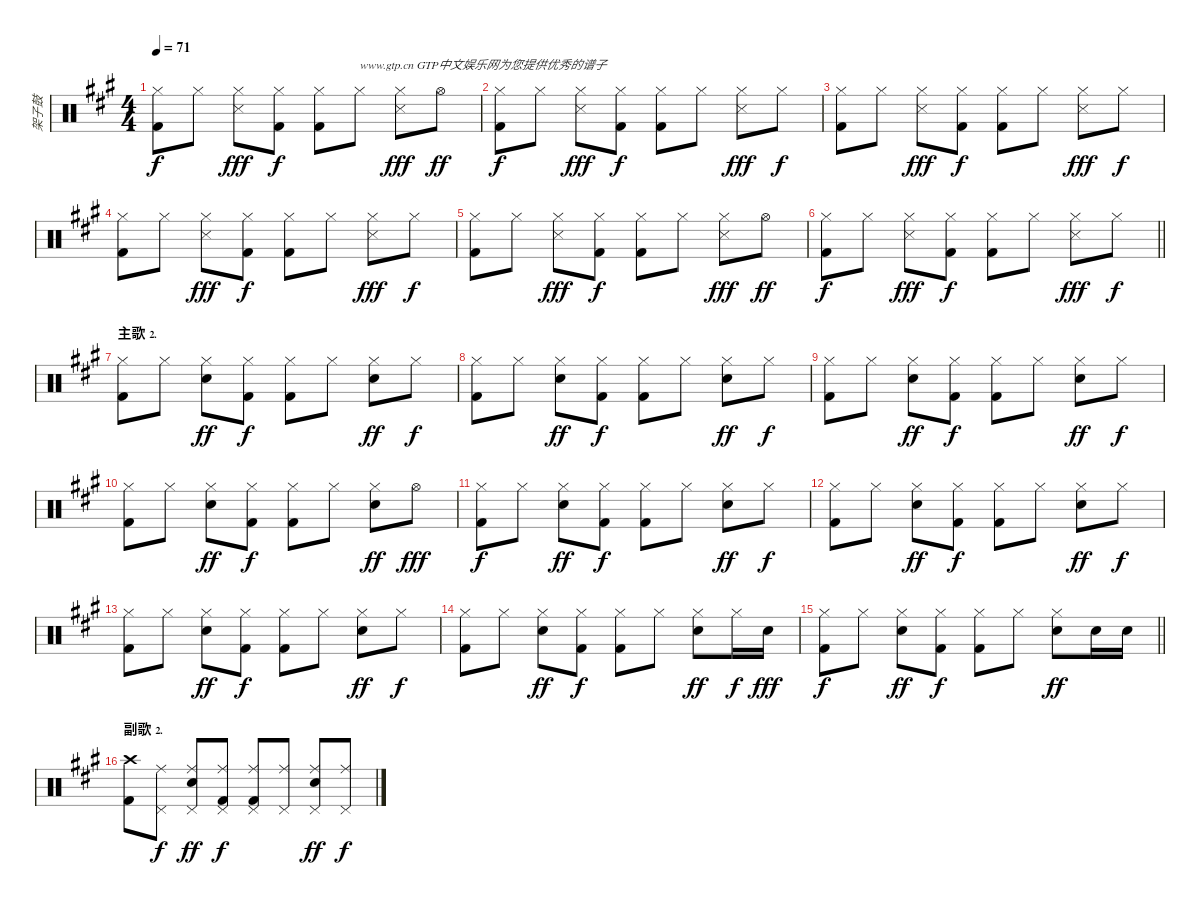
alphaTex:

\track ("架子鼓" "架子鼓") {instrument percussion}
\staff {score}
\articulation defaults
\ts (4 4)
\tempo 71
\clef neutral
\ks a
("Hi-Hat (closed)" "Kick (hit) 2").8{dy f} "Hi-Hat (closed)".8 ("Hi-Hat (closed)" "Snare (side stick) 3").8{dy fff} ("Hi-Hat (closed)" "Kick (hit) 2").8{dy f} ("Hi-Hat (closed)" "Kick (hit) 2").8 "Hi-Hat (closed)".8{txt "www.gtp.cn GTP中文娱乐网为您提供优秀的谱子"} ("Hi-Hat (closed)" "Snare (side stick) 3").8{dy fff} "Hi-Hat (open)".8{dy ff} |
("Hi-Hat (closed)" "Kick (hit) 2").8{dy f} "Hi-Hat (closed)".8 ("Hi-Hat (closed)" "Snare (side stick) 3").8{dy fff} ("Hi-Hat (closed)" "Kick (hit) 2").8{dy f} ("Hi-Hat (closed)" "Kick (hit) 2").8 "Hi-Hat (closed)".8 ("Hi-Hat (closed)" "Snare (side stick) 3").8{dy fff} "Hi-Hat (closed)".8{dy f} |
("Hi-Hat (closed)" "Kick (hit) 2").8 "Hi-Hat (closed)".8 ("Hi-Hat (closed)" "Snare (side stick) 3").8{dy fff} ("Hi-Hat (closed)" "Kick (hit) 2").8{dy f} ("Hi-Hat (closed)" "Kick (hit) 2").8 "Hi-Hat (closed)".8 ("Hi-Hat (closed)" "Snare (side stick) 3").8{dy fff} "Hi-Hat (closed)".8{dy f} |
("Hi-Hat (closed)" "Kick (hit) 2").8 "Hi-Hat (closed)".8 ("Hi-Hat (closed)" "Snare (side stick) 3").8{dy fff} ("Hi-Hat (closed)" "Kick (hit) 2").8{dy f} ("Hi-Hat (closed)" "Kick (hit) 2").8 "Hi-Hat (closed)".8 ("Hi-Hat (closed)" "Snare (side stick) 3").8{dy fff} "Hi-Hat (closed)".8{dy f} |
("Hi-Hat (closed)" "Kick (hit) 2").8 "Hi-Hat (closed)".8 ("Hi-Hat (closed)" "Snare (side stick) 3").8{dy fff} ("Hi-Hat (closed)" "Kick (hit) 2").8{dy f} ("Hi-Hat (closed)" "Kick (hit) 2").8 "Hi-Hat (closed)".8 ("Hi-Hat (closed)" "Snare (side stick) 3").8{dy fff} "Hi-Hat (open)".8{dy ff} |
\barLineRight lightlight
("Hi-Hat (closed)" "Kick (hit) 2").8{dy f} "Hi-Hat (closed)".8 ("Hi-Hat (closed)" "Snare (side stick) 3").8{dy fff} ("Hi-Hat (closed)" "Kick (hit) 2").8{dy f} ("Hi-Hat (closed)" "Kick (hit) 2").8 "Hi-Hat (closed)".8 ("Hi-Hat (closed)" "Snare (side stick) 3").8{dy fff} "Hi-Hat (closed)".8{dy f} |
\section ("" "主歌⒉")
("Hi-Hat (closed)" "Kick (hit) 2").8 "Hi-Hat (closed)".8 ("Hi-Hat (closed)" "Electric Snare (hit)").8{dy ff} ("Hi-Hat (closed)" "Kick (hit) 2").8{dy f} ("Hi-Hat (closed)" "Kick (hit) 2").8 "Hi-Hat (closed)".8 ("Hi-Hat (closed)" "Electric Snare (hit)").8{dy ff} "Hi-Hat (closed)".8{dy f} |
("Hi-Hat (closed)" "Kick (hit) 2").8 "Hi-Hat (closed)".8 ("Hi-Hat (closed)" "Electric Snare (hit)").8{dy ff} ("Hi-Hat (closed)" "Kick (hit) 2").8{dy f} ("Hi-Hat (closed)" "Kick (hit) 2").8 "Hi-Hat (closed)".8 ("Hi-Hat (closed)" "Electric Snare (hit)").8{dy ff} "Hi-Hat (closed)".8{dy f} |
("Hi-Hat (closed)" "Kick (hit) 2").8 "Hi-Hat (closed)".8 ("Hi-Hat (closed)" "Electric Snare (hit)").8{dy ff} ("Hi-Hat (closed)" "Kick (hit) 2").8{dy f} ("Hi-Hat (closed)" "Kick (hit) 2").8 "Hi-Hat (closed)".8 ("Hi-Hat (closed)" "Electric Snare (hit)").8{dy ff} "Hi-Hat (closed)".8{dy f} |
("Hi-Hat (closed)" "Kick (hit) 2").8 "Hi-Hat (closed)".8 ("Hi-Hat (closed)" "Electric Snare (hit)").8{dy ff} ("Hi-Hat (closed)" "Kick (hit) 2").8{dy f} ("Hi-Hat (closed)" "Kick (hit) 2").8 "Hi-Hat (closed)".8 ("Hi-Hat (closed)" "Electric Snare (hit)").8{dy ff} "Hi-Hat (open)".8{dy fff} |
("Hi-Hat (closed)" "Kick (hit) 2").8{dy f} "Hi-Hat (closed)".8 ("Hi-Hat (closed)" "Electric Snare (hit)").8{dy ff} ("Hi-Hat (closed)" "Kick (hit) 2").8{dy f} ("Hi-Hat (closed)" "Kick (hit) 2").8 "Hi-Hat (closed)".8 ("Hi-Hat (closed)" "Electric Snare (hit)").8{dy ff} "Hi-Hat (closed)".8{dy f} |
("Hi-Hat (closed)" "Kick (hit) 2").8 "Hi-Hat (closed)".8 ("Hi-Hat (closed)" "Electric Snare (hit)").8{dy ff} ("Hi-Hat (closed)" "Kick (hit) 2").8{dy f} ("Hi-Hat (closed)" "Kick (hit) 2").8 "Hi-Hat (closed)".8 ("Hi-Hat (closed)" "Electric Snare (hit)").8{dy ff} "Hi-Hat (closed)".8{dy f} |
("Hi-Hat (closed)" "Kick (hit) 2").8 "Hi-Hat (closed)".8 ("Hi-Hat (closed)" "Electric Snare (hit)").8{dy ff} ("Hi-Hat (closed)" "Kick (hit) 2").8{dy f} ("Hi-Hat (closed)" "Kick (hit) 2").8 "Hi-Hat (closed)".8 ("Hi-Hat (closed)" "Electric Snare (hit)").8{dy ff} "Hi-Hat (closed)".8{dy f} |
("Hi-Hat (closed)" "Kick (hit) 2").8 "Hi-Hat (closed)".8 ("Hi-Hat (closed)" "Electric Snare (hit)").8{dy ff} ("Hi-Hat (closed)" "Kick (hit) 2").8{dy f} ("Hi-Hat (closed)" "Kick (hit) 2").8 "Hi-Hat (closed)".8 ("Hi-Hat (closed)" "Electric Snare (hit)").8{dy ff} "Hi-Hat (closed)".16{dy f} "Electric Snare (hit)".16{dy fff} |
\barLineRight lightlight
("Hi-Hat (closed)" "Kick (hit) 2").8{dy f} "Hi-Hat (closed)".8 ("Hi-Hat (closed)" "Electric Snare (hit)").8{dy ff} ("Hi-Hat (closed)" "Kick (hit) 2").8{dy f} ("Hi-Hat (closed)" "Kick (hit) 2").8 "Hi-Hat (closed)".8 ("Hi-Hat (closed)" "Electric Snare (hit)").8{dy ff} "Electric Snare (hit)".16 "Electric Snare (hit)".16 |
\section ("" "副歌⒉")
("Crash high (hit)" "Kick (hit) 2").8 ("Ride (middle)" "Pedal Hi-Hat (hit)").8{dy f} ("Ride (middle)" "Electric Snare (hit)" "Pedal Hi-Hat (hit)").8{dy ff} ("Ride (middle)" "Pedal Hi-Hat (hit)" "Kick (hit) 2").8{dy f} ("Ride (middle)" "Pedal Hi-Hat (hit)" "Kick (hit) 2").8 ("Ride (middle)" "Pedal Hi-Hat (hit)").8 ("Ride (middle)" "Electric Snare (hit)" "Pedal Hi-Hat (hit)").8{dy ff} ("Ride (middle)" "Pedal Hi-Hat (hit)").8{dy f}
